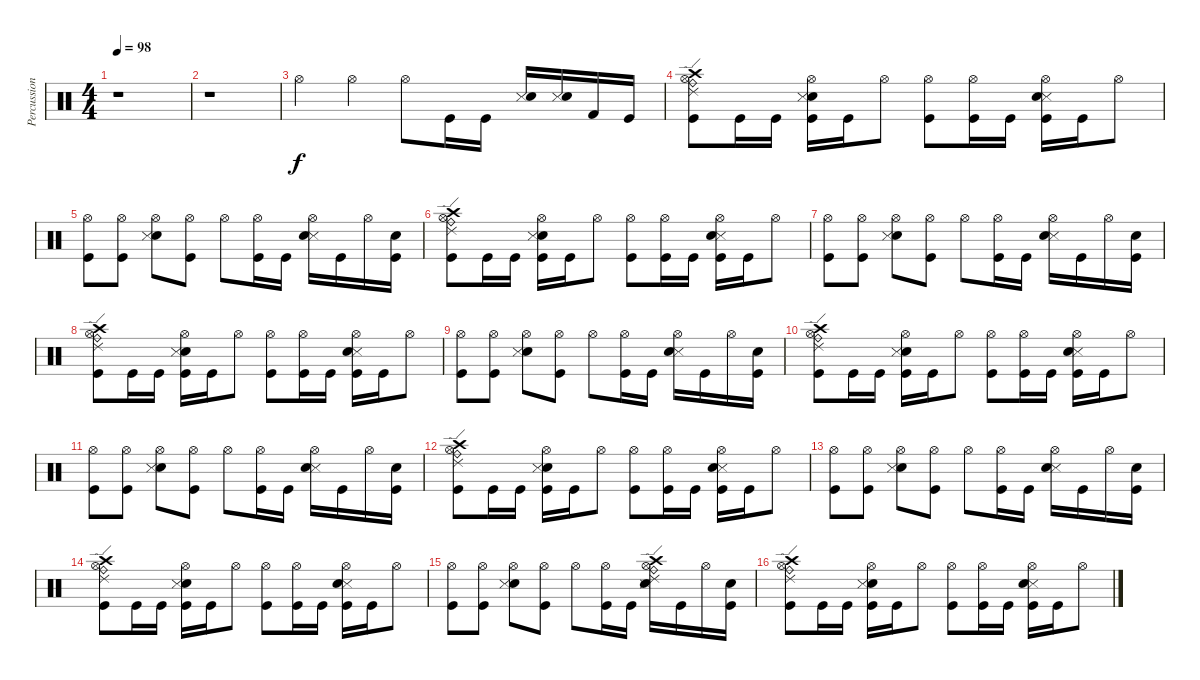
\track ("Percussion" "Percussion") {instrument percussion}
\staff {score}
\articulation defaults
\ts (4 4)
\tempo 98
\clef neutral
\ks c
r.1{dy f} |
r.1 |
"Hi-Hat (open)".4 "Hi-Hat (open)".4 "Hi-Hat (open)".8 "Kick (hit)".16 "Kick (hit)".16 ("Snare (side stick) 3" "Electric Snare (hit)").16 ("Snare (side stick) 3" "Electric Snare (hit)").16 "Kick (hit) 2".16 "Kick (hit)".16 |
("Crash high (hit)" "Ride (edge) 2" "Kick (hit)" "Hi-Hat (open)" "Ride (bell)").8 "Kick (hit)".16 "Kick (hit)".16 ("Electric Snare (hit)" "Snare (side stick) 3" "Kick (hit)" "Hi-Hat (open)").16 "Kick (hit)".16 "Hi-Hat (open)".8 ("Kick (hit)" "Hi-Hat (open)").8 ("Kick (hit)" "Hi-Hat (open)").16 "Kick (hit)".16 ("Snare (side stick) 3" "Electric Snare (hit)" "Kick (hit)" "Hi-Hat (open)").16 "Kick (hit)".16 "Hi-Hat (open)".8 |
("Kick (hit)" "Hi-Hat (open)").8 ("Kick (hit)" "Hi-Hat (open)").8 ("Electric Snare (hit)" "Snare (side stick) 3" "Hi-Hat (open)").8 ("Kick (hit)" "Hi-Hat (open)").8 "Hi-Hat (open)".8 ("Kick (hit)" "Hi-Hat (open)").16 "Kick (hit)".16 ("Snare (side stick) 3" "Electric Snare (hit)" "Hi-Hat (open)").16 "Kick (hit)".16 "Hi-Hat (open)".16 ("Kick (hit)" "Electric Snare (hit)").16 |
("Crash high (hit)" "Ride (edge) 2" "Kick (hit)" "Hi-Hat (open)" "Ride (bell)").8 "Kick (hit)".16 "Kick (hit)".16 ("Electric Snare (hit)" "Snare (side stick) 3" "Kick (hit)" "Hi-Hat (open)").16 "Kick (hit)".16 "Hi-Hat (open)".8 ("Kick (hit)" "Hi-Hat (open)").8 ("Kick (hit)" "Hi-Hat (open)").16 "Kick (hit)".16 ("Snare (side stick) 3" "Electric Snare (hit)" "Kick (hit)" "Hi-Hat (open)").16 "Kick (hit)".16 "Hi-Hat (open)".8 |
("Kick (hit)" "Hi-Hat (open)").8 ("Kick (hit)" "Hi-Hat (open)").8 ("Electric Snare (hit)" "Snare (side stick) 3" "Hi-Hat (open)").8 ("Kick (hit)" "Hi-Hat (open)").8 "Hi-Hat (open)".8 ("Kick (hit)" "Hi-Hat (open)").16 "Kick (hit)".16 ("Snare (side stick) 3" "Electric Snare (hit)" "Hi-Hat (open)").16 "Kick (hit)".16 "Hi-Hat (open)".16 ("Kick (hit)" "Electric Snare (hit)").16 |
("Crash high (hit)" "Ride (edge) 2" "Kick (hit)" "Hi-Hat (open)" "Ride (bell)").8 "Kick (hit)".16 "Kick (hit)".16 ("Electric Snare (hit)" "Snare (side stick) 3" "Kick (hit)" "Hi-Hat (open)").16 "Kick (hit)".16 "Hi-Hat (open)".8 ("Kick (hit)" "Hi-Hat (open)").8 ("Kick (hit)" "Hi-Hat (open)").16 "Kick (hit)".16 ("Snare (side stick) 3" "Electric Snare (hit)" "Kick (hit)" "Hi-Hat (open)").16 "Kick (hit)".16 "Hi-Hat (open)".8 |
("Kick (hit)" "Hi-Hat (open)").8 ("Kick (hit)" "Hi-Hat (open)").8 ("Electric Snare (hit)" "Snare (side stick) 3" "Hi-Hat (open)").8 ("Kick (hit)" "Hi-Hat (open)").8 "Hi-Hat (open)".8 ("Kick (hit)" "Hi-Hat (open)").16 "Kick (hit)".16 ("Snare (side stick) 3" "Electric Snare (hit)" "Hi-Hat (open)").16 "Kick (hit)".16 "Hi-Hat (open)".16 ("Kick (hit)" "Electric Snare (hit)").16 |
("Crash high (hit)" "Ride (edge) 2" "Kick (hit)" "Hi-Hat (open)" "Ride (bell)").8 "Kick (hit)".16 "Kick (hit)".16 ("Electric Snare (hit)" "Snare (side stick) 3" "Kick (hit)" "Hi-Hat (open)").16 "Kick (hit)".16 "Hi-Hat (open)".8 ("Kick (hit)" "Hi-Hat (open)").8 ("Kick (hit)" "Hi-Hat (open)").16 "Kick (hit)".16 ("Snare (side stick) 3" "Electric Snare (hit)" "Kick (hit)" "Hi-Hat (open)").16 "Kick (hit)".16 "Hi-Hat (open)".8 |
("Kick (hit)" "Hi-Hat (open)").8 ("Kick (hit)" "Hi-Hat (open)").8 ("Electric Snare (hit)" "Snare (side stick) 3" "Hi-Hat (open)").8 ("Kick (hit)" "Hi-Hat (open)").8 "Hi-Hat (open)".8 ("Kick (hit)" "Hi-Hat (open)").16 "Kick (hit)".16 ("Snare (side stick) 3" "Electric Snare (hit)" "Hi-Hat (open)").16 "Kick (hit)".16 "Hi-Hat (open)".16 ("Kick (hit)" "Electric Snare (hit)").16 |
("Crash high (hit)" "Ride (edge) 2" "Kick (hit)" "Hi-Hat (open)" "Ride (bell)").8 "Kick (hit)".16 "Kick (hit)".16 ("Electric Snare (hit)" "Snare (side stick) 3" "Kick (hit)" "Hi-Hat (open)").16 "Kick (hit)".16 "Hi-Hat (open)".8 ("Kick (hit)" "Hi-Hat (open)").8 ("Kick (hit)" "Hi-Hat (open)").16 "Kick (hit)".16 ("Snare (side stick) 3" "Electric Snare (hit)" "Kick (hit)" "Hi-Hat (open)").16 "Kick (hit)".16 "Hi-Hat (open)".8 |
("Kick (hit)" "Hi-Hat (open)").8 ("Kick (hit)" "Hi-Hat (open)").8 ("Electric Snare (hit)" "Snare (side stick) 3" "Hi-Hat (open)").8 ("Kick (hit)" "Hi-Hat (open)").8 "Hi-Hat (open)".8 ("Kick (hit)" "Hi-Hat (open)").16 "Kick (hit)".16 ("Snare (side stick) 3" "Electric Snare (hit)" "Hi-Hat (open)").16 "Kick (hit)".16 "Hi-Hat (open)".16 ("Kick (hit)" "Electric Snare (hit)").16 |
("Crash high (hit)" "Hi-Hat (open)" "Ride (edge) 2" "Kick (hit)" "Ride (bell)").8 "Kick (hit)".16 "Kick (hit)".16 ("Electric Snare (hit)" "Snare (side stick) 3" "Kick (hit)" "Hi-Hat (open)").16 "Kick (hit)".16 "Hi-Hat (open)".8 ("Kick (hit)" "Hi-Hat (open)").8 ("Kick (hit)" "Hi-Hat (open)").16 "Kick (hit)".16 ("Snare (side stick) 3" "Electric Snare (hit)" "Kick (hit)" "Hi-Hat (open)").16 "Kick (hit)".16 "Hi-Hat (open)".8 |
("Kick (hit)" "Hi-Hat (open)").8 ("Kick (hit)" "Hi-Hat (open)").8 ("Electric Snare (hit)" "Snare (side stick) 3" "Hi-Hat (open)").8 ("Kick (hit)" "Hi-Hat (open)").8 "Hi-Hat (open)".8 ("Kick (hit)" "Hi-Hat (open)").16 "Kick (hit)".16 ("Crash high (hit)" "Ride (bell)" "Ride (edge) 2" "Hi-Hat (open)" "Snare (side stick) 3" "Electric Snare (hit)").16 "Kick (hit)".16 "Hi-Hat (open)".16 ("Kick (hit)" "Electric Snare (hit)").16 |
("Hi-Hat (open)" "Crash high (hit)" "Ride (bell)" "Ride (edge) 2" "Kick (hit)").8 "Kick (hit)".16 "Kick (hit)".16 ("Electric Snare (hit)" "Snare (side stick) 3" "Kick (hit)" "Hi-Hat (open)").16 "Kick (hit)".16 "Hi-Hat (open)".8 ("Kick (hit)" "Hi-Hat (open)").8 ("Kick (hit)" "Hi-Hat (open)").16 "Kick (hit)".16 ("Snare (side stick) 3" "Electric Snare (hit)" "Kick (hit)" "Hi-Hat (open)").16 "Kick (hit)".16 "Hi-Hat (open)".8
